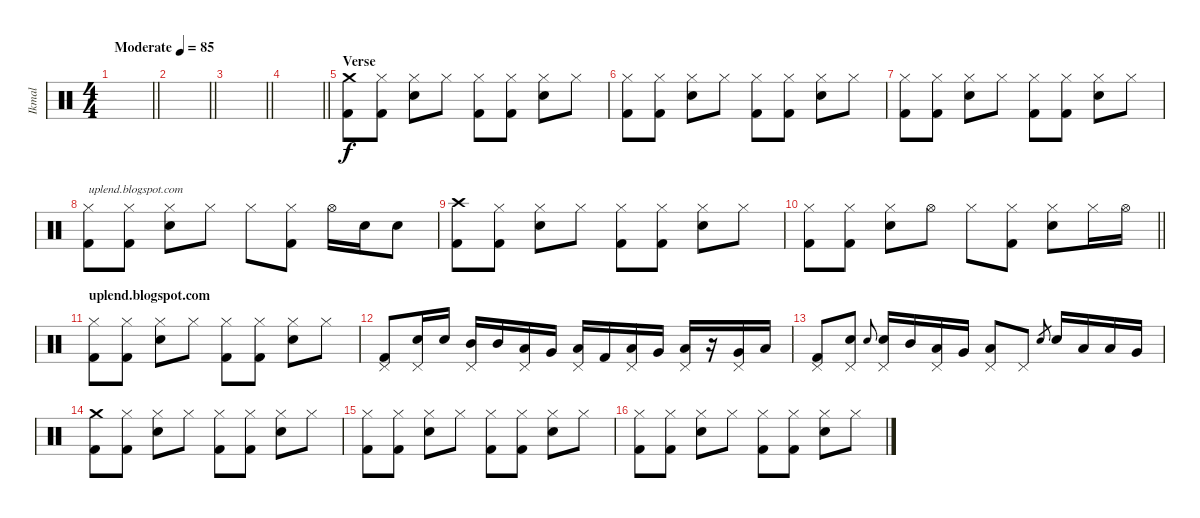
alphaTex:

\track ("Ikmal" "Ikmal") {instrument percussion}
\staff {score}
\articulation defaults
\ts (4 4)
\tempo (85 "Moderate")
\clef neutral
\barLineRight lightlight
\ks c
|
\barLineRight lightlight
|
\barLineRight lightlight
|
\barLineRight lightlight
|
\section ("" "Verse")
("Crash medium (hit)" "Kick (hit) 2").8 ("Hi-Hat (closed)" "Kick (hit) 2").8 ("Hi-Hat (closed)" "Electric Snare (hit)").8 "Hi-Hat (closed)".8 ("Hi-Hat (closed)" "Kick (hit) 2").8 ("Hi-Hat (closed)" "Kick (hit) 2").8 ("Hi-Hat (closed)" "Electric Snare (hit)").8 "Hi-Hat (closed)".8 |
("Hi-Hat (closed)" "Kick (hit) 2").8 ("Hi-Hat (closed)" "Kick (hit) 2").8 ("Hi-Hat (closed)" "Electric Snare (hit)").8 "Hi-Hat (closed)".8 ("Hi-Hat (closed)" "Kick (hit) 2").8 ("Hi-Hat (closed)" "Kick (hit) 2").8 ("Hi-Hat (closed)" "Electric Snare (hit)").8 "Hi-Hat (closed)".8 |
("Hi-Hat (closed)" "Kick (hit) 2").8 ("Hi-Hat (closed)" "Kick (hit) 2").8 ("Hi-Hat (closed)" "Electric Snare (hit)").8 "Hi-Hat (closed)".8 ("Hi-Hat (closed)" "Kick (hit) 2").8 ("Hi-Hat (closed)" "Kick (hit) 2").8 ("Hi-Hat (closed)" "Electric Snare (hit)").8 "Hi-Hat (closed)".8 |
("Hi-Hat (closed)" "Kick (hit) 2").8{txt "uplend.blogspot.com"} ("Hi-Hat (closed)" "Kick (hit) 2").8 ("Hi-Hat (closed)" "Electric Snare (hit)").8 "Hi-Hat (closed)".8 "Hi-Hat (closed)".8 ("Hi-Hat (closed)" "Kick (hit) 2").8 "Hi-Hat (open)".16 "Electric Snare (hit)".16 "Electric Snare (hit)".8 |
("Crash high (hit)" "Kick (hit) 2").8 ("Hi-Hat (closed)" "Kick (hit) 2").8 ("Hi-Hat (closed)" "Electric Snare (hit)").8 "Hi-Hat (closed)".8 ("Hi-Hat (closed)" "Kick (hit) 2").8 ("Hi-Hat (closed)" "Kick (hit) 2").8 ("Hi-Hat (closed)" "Electric Snare (hit)").8 "Hi-Hat (closed)".8 |
\barLineRight lightlight
("Hi-Hat (closed)" "Kick (hit) 2").8 ("Hi-Hat (closed)" "Kick (hit) 2").8 ("Hi-Hat (closed)" "Electric Snare (hit)").8 "Hi-Hat (open)".8 "Hi-Hat (closed)".8 ("Hi-Hat (closed)" "Kick (hit) 2").8 ("Hi-Hat (closed)" "Electric Snare (hit)").8 "Hi-Hat (closed)".16 "Hi-Hat (open)".16 |
\section ("" "uplend.blogspot.com")
("Hi-Hat (closed)" "Kick (hit) 2").8 ("Hi-Hat (closed)" "Kick (hit) 2").8 ("Hi-Hat (closed)" "Electric Snare (hit)").8 "Hi-Hat (closed)".8 ("Hi-Hat (closed)" "Kick (hit) 2").8 ("Hi-Hat (closed)" "Kick (hit) 2").8 ("Hi-Hat (closed)" "Electric Snare (hit)").8 "Hi-Hat (closed)".8 |
("Pedal Hi-Hat (hit)" "Kick (hit) 2").8 ("Pedal Hi-Hat (hit)" "Electric Snare (hit)").16 "Electric Snare (hit)".16 ("Pedal Hi-Hat (hit)" "Mid Tom (hit)").16 "Mid Tom (hit)".16 ("Pedal Hi-Hat (hit)" "Low Tom (hit)").16 "Very Low Tom (hit)".16 ("Pedal Hi-Hat (hit)" "Low Floor Tom (hit)").16 "Kick (hit) 2".16 ("Pedal Hi-Hat (hit)" "Low Floor Tom (hit)").16 "Very Low Tom (hit)".16 ("Pedal Hi-Hat (hit)" "Low Tom (hit)").16 r.16 ("Pedal Hi-Hat (hit)" "Very Low Tom (hit)").16 "Low Tom (hit)".16 |
("Pedal Hi-Hat (hit)" "Kick (hit) 2").8 ("Pedal Hi-Hat (hit)" "Electric Snare (hit)").8 "Electric Snare (hit)".8{gr onbeat} ("Pedal Hi-Hat (hit)" "Electric Snare (hit)").16 "Mid Tom (hit)".16 ("Pedal Hi-Hat (hit)" "Low Tom (hit)").16 "Very Low Tom (hit)".16 ("Pedal Hi-Hat (hit)" "Low Floor Tom (hit)").8 "Pedal Hi-Hat (hit)".8 "Electric Snare (hit)".8{gr} "Electric Snare (hit)".16 "Low Tom (hit)".16 "Low Tom (hit)".16 "Very Low Tom (hit)".16 |
("Crash medium (hit)" "Kick (hit) 2").8 ("Hi-Hat (closed)" "Kick (hit) 2").8 ("Hi-Hat (closed)" "Electric Snare (hit)").8 "Hi-Hat (closed)".8 ("Hi-Hat (closed)" "Kick (hit) 2").8 ("Hi-Hat (closed)" "Kick (hit) 2").8 ("Hi-Hat (closed)" "Electric Snare (hit)").8 "Hi-Hat (closed)".8 |
("Hi-Hat (closed)" "Kick (hit) 2").8 ("Hi-Hat (closed)" "Kick (hit) 2").8 ("Hi-Hat (closed)" "Electric Snare (hit)").8 "Hi-Hat (closed)".8 ("Hi-Hat (closed)" "Kick (hit) 2").8 ("Hi-Hat (closed)" "Kick (hit) 2").8 ("Hi-Hat (closed)" "Electric Snare (hit)").8 "Hi-Hat (closed)".8 |
("Hi-Hat (closed)" "Kick (hit) 2").8 ("Hi-Hat (closed)" "Kick (hit) 2").8 ("Hi-Hat (closed)" "Electric Snare (hit)").8 "Hi-Hat (closed)".8 ("Hi-Hat (closed)" "Kick (hit) 2").8 ("Hi-Hat (closed)" "Kick (hit) 2").8 ("Hi-Hat (closed)" "Electric Snare (hit)").8 "Hi-Hat (closed)".8
